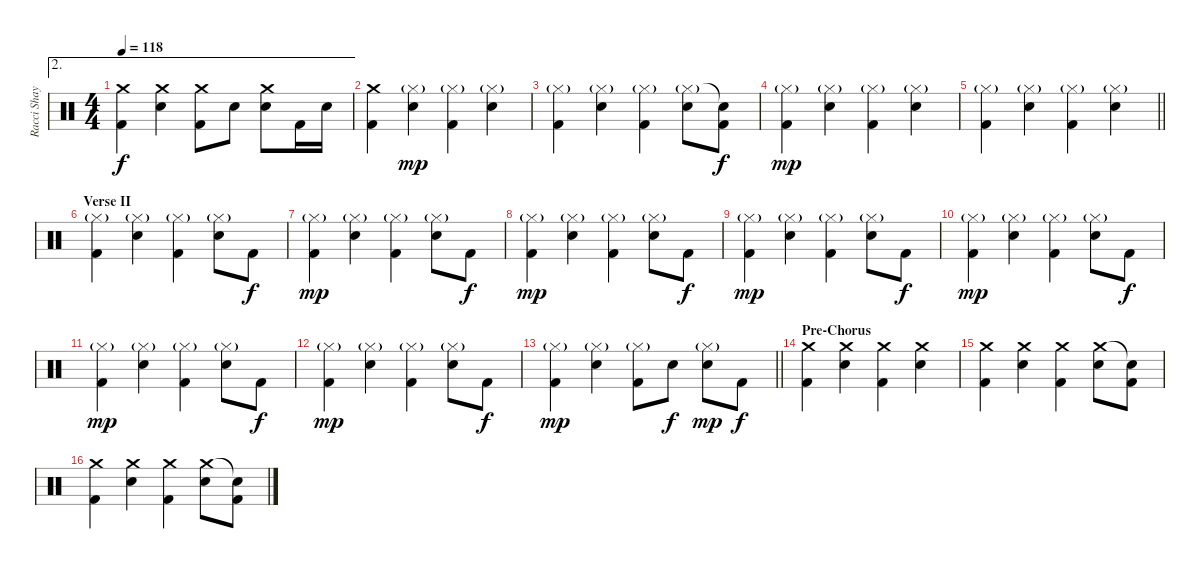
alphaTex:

\track ("Racci Shay" "Racci Shay") {instrument percussion}
\staff {score}
\articulation defaults
\ae 2
\ts (4 4)
\tempo 118
\clef neutral
\ks c
("Crash medium (hit)" "Kick (hit) 2").4{dy f} ("Crash medium (hit)" "Electric Snare (hit)").4 ("Crash medium (hit)" "Kick (hit) 2").8 "Electric Snare (hit)".8 ("Crash medium (hit)" "Electric Snare (hit)").8 "Kick (hit) 2".16 "Electric Snare (hit)".16 |
("Crash medium (hit)" "Kick (hit) 2").4 ("Hi-Hat (closed)"{g} "Electric Snare (hit)").4{dy mp} ("Hi-Hat (closed)"{g} "Kick (hit) 2").4 ("Hi-Hat (closed)"{g} "Electric Snare (hit)").4 |
("Hi-Hat (closed)"{g} "Kick (hit) 2").4 ("Hi-Hat (closed)"{g} "Electric Snare (hit)").4 ("Hi-Hat (closed)"{g} "Kick (hit) 2").4 ("Hi-Hat (closed)"{g} "Electric Snare (hit)").8 ("Snare (hit)"{t} "Kick (hit) 2").8{dy f} |
("Hi-Hat (closed)"{g} "Kick (hit) 2").4{dy mp} ("Hi-Hat (closed)"{g} "Electric Snare (hit)").4 ("Hi-Hat (closed)"{g} "Kick (hit) 2").4 ("Hi-Hat (closed)"{g} "Electric Snare (hit)").4 |
\barLineRight lightlight
("Hi-Hat (closed)"{g} "Kick (hit) 2").4 ("Hi-Hat (closed)"{g} "Electric Snare (hit)").4 ("Hi-Hat (closed)"{g} "Kick (hit) 2").4 ("Hi-Hat (closed)"{g} "Electric Snare (hit)").4 |
\section ("" "Verse II")
("Hi-Hat (closed)"{g} "Kick (hit) 2").4 ("Hi-Hat (closed)"{g} "Electric Snare (hit)").4 ("Hi-Hat (closed)"{g} "Kick (hit) 2").4 ("Hi-Hat (closed)"{g} "Electric Snare (hit)").8 "Kick (hit) 2".8{dy f} |
("Hi-Hat (closed)"{g} "Kick (hit) 2").4{dy mp} ("Hi-Hat (closed)"{g} "Electric Snare (hit)").4 ("Hi-Hat (closed)"{g} "Kick (hit) 2").4 ("Hi-Hat (closed)"{g} "Electric Snare (hit)").8 "Kick (hit) 2".8{dy f} |
("Hi-Hat (closed)"{g} "Kick (hit) 2").4{dy mp} ("Hi-Hat (closed)"{g} "Electric Snare (hit)").4 ("Hi-Hat (closed)"{g} "Kick (hit) 2").4 ("Hi-Hat (closed)"{g} "Electric Snare (hit)").8 "Kick (hit) 2".8{dy f} |
("Hi-Hat (closed)"{g} "Kick (hit) 2").4{dy mp} ("Hi-Hat (closed)"{g} "Electric Snare (hit)").4 ("Hi-Hat (closed)"{g} "Kick (hit) 2").4 ("Hi-Hat (closed)"{g} "Electric Snare (hit)").8 "Kick (hit) 2".8{dy f} |
("Hi-Hat (closed)"{g} "Kick (hit) 2").4{dy mp} ("Hi-Hat (closed)"{g} "Electric Snare (hit)").4 ("Hi-Hat (closed)"{g} "Kick (hit) 2").4 ("Hi-Hat (closed)"{g} "Electric Snare (hit)").8 "Kick (hit) 2".8{dy f} |
("Hi-Hat (closed)"{g} "Kick (hit) 2").4{dy mp} ("Hi-Hat (closed)"{g} "Electric Snare (hit)").4 ("Hi-Hat (closed)"{g} "Kick (hit) 2").4 ("Hi-Hat (closed)"{g} "Electric Snare (hit)").8 "Kick (hit) 2".8{dy f} |
("Hi-Hat (closed)"{g} "Kick (hit) 2").4{dy mp} ("Hi-Hat (closed)"{g} "Electric Snare (hit)").4 ("Hi-Hat (closed)"{g} "Kick (hit) 2").4 ("Hi-Hat (closed)"{g} "Electric Snare (hit)").8 "Kick (hit) 2".8{dy f} |
\barLineRight lightlight
("Hi-Hat (closed)"{g} "Kick (hit) 2").4{dy mp} ("Hi-Hat (closed)"{g} "Electric Snare (hit)").4 ("Hi-Hat (closed)"{g} "Kick (hit) 2").8 "Electric Snare (hit)".8{dy f} ("Hi-Hat (closed)"{g} "Electric Snare (hit)").8{dy mp} "Kick (hit) 2".8{dy f} |
\section ("" "Pre-Chorus")
("Crash medium (hit)" "Kick (hit) 2").4 ("Crash medium (hit)" "Electric Snare (hit)").4 ("Crash medium (hit)" "Kick (hit) 2").4 ("Crash medium (hit)" "Electric Snare (hit)").4 |
("Crash medium (hit)" "Kick (hit) 2").4 ("Crash medium (hit)" "Electric Snare (hit)").4 ("Crash medium (hit)" "Kick (hit) 2").4 ("Crash medium (hit)" "Electric Snare (hit)").8 ("Snare (hit)"{t} "Kick (hit) 2").8 |
("Crash medium (hit)" "Kick (hit) 2").4 ("Crash medium (hit)" "Electric Snare (hit)").4 ("Crash medium (hit)" "Kick (hit) 2").4 ("Crash medium (hit)" "Electric Snare (hit)").8 ("Snare (hit)"{t} "Kick (hit) 2").8
